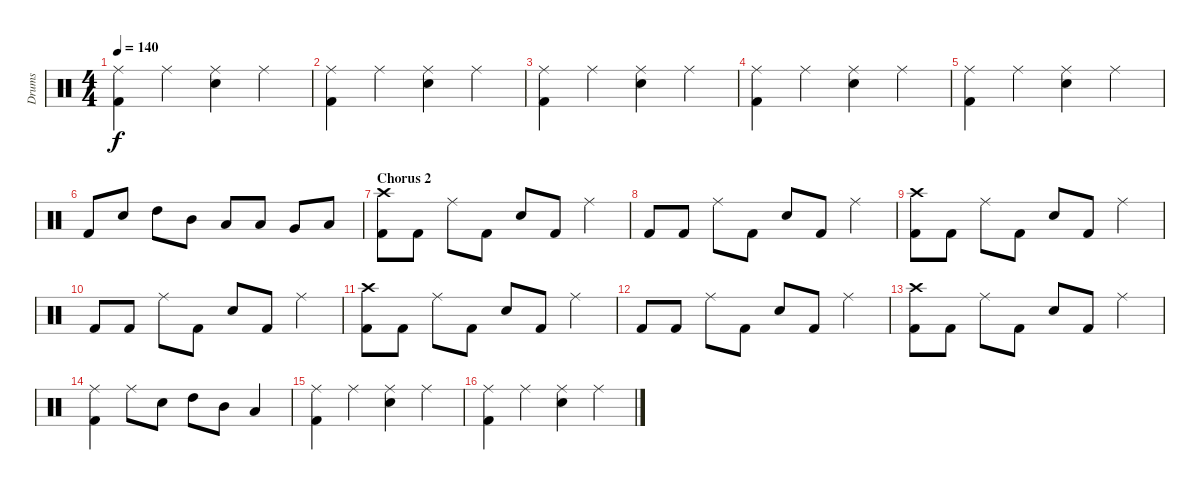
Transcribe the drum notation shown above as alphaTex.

\track ("Drums" "Drums") {instrument percussion}
\staff {score}
\articulation defaults
\ts (4 4)
\tempo 140
\clef neutral
\ks c
("Ride (middle)" "Kick (hit) 2").4{dy f} "Ride (middle)".4 ("Ride (middle)" "Electric Snare (hit)").4 "Ride (middle)".4 |
("Ride (middle)" "Kick (hit) 2").4 "Ride (middle)".4 ("Ride (middle)" "Electric Snare (hit)").4 "Ride (middle)".4 |
("Ride (middle)" "Kick (hit) 2").4 "Ride (middle)".4 ("Ride (middle)" "Electric Snare (hit)").4 "Ride (middle)".4 |
("Ride (middle)" "Kick (hit) 2").4 "Ride (middle)".4 ("Ride (middle)" "Electric Snare (hit)").4 "Ride (middle)".4 |
("Ride (middle)" "Kick (hit) 2").4 "Ride (middle)".4 ("Ride (middle)" "Electric Snare (hit)").4 "Ride (middle)".4 |
"Kick (hit) 2".8 "Electric Snare (hit)".8 "High Tom (hit)".8 "Mid Tom (hit)".8 "Low Tom (hit)".8 "Low Tom (hit)".8 "Very Low Tom (hit)".8 "Low Floor Tom (hit)".8 |
\section ("" "Chorus 2")
("Crash high (hit)" "Kick (hit) 2").8 "Kick (hit) 2".8 "Ride (middle)".8 "Kick (hit) 2".8 "Electric Snare (hit)".8 "Kick (hit) 2".8 "Ride (middle)".4 |
"Kick (hit) 2".8 "Kick (hit) 2".8 "Ride (middle)".8 "Kick (hit) 2".8 "Electric Snare (hit)".8 "Kick (hit) 2".8 "Ride (middle)".4 |
("Crash high (hit)" "Kick (hit) 2").8 "Kick (hit) 2".8 "Ride (middle)".8 "Kick (hit) 2".8 "Electric Snare (hit)".8 "Kick (hit) 2".8 "Ride (middle)".4 |
"Kick (hit) 2".8 "Kick (hit) 2".8 "Ride (middle)".8 "Kick (hit) 2".8 "Electric Snare (hit)".8 "Kick (hit) 2".8 "Ride (middle)".4 |
("Crash high (hit)" "Kick (hit) 2").8 "Kick (hit) 2".8 "Ride (middle)".8 "Kick (hit) 2".8 "Electric Snare (hit)".8 "Kick (hit) 2".8 "Ride (middle)".4 |
"Kick (hit) 2".8 "Kick (hit) 2".8 "Ride (middle)".8 "Kick (hit) 2".8 "Electric Snare (hit)".8 "Kick (hit) 2".8 "Ride (middle)".4 |
("Crash high (hit)" "Kick (hit) 2").8 "Kick (hit) 2".8 "Ride (middle)".8 "Kick (hit) 2".8 "Electric Snare (hit)".8 "Kick (hit) 2".8 "Ride (middle)".4 |
("Ride (middle)" "Kick (hit) 2").4 "Ride (middle)".8 "Electric Snare (hit)".8 "High Tom (hit)".8 "Mid Tom (hit)".8 "Low Tom (hit)".4 |
("Ride (middle)" "Kick (hit) 2").4 "Ride (middle)".4 ("Ride (middle)" "Electric Snare (hit)").4 "Ride (middle)".4 |
("Ride (middle)" "Kick (hit) 2").4 "Ride (middle)".4 ("Ride (middle)" "Electric Snare (hit)").4 "Ride (middle)".4
